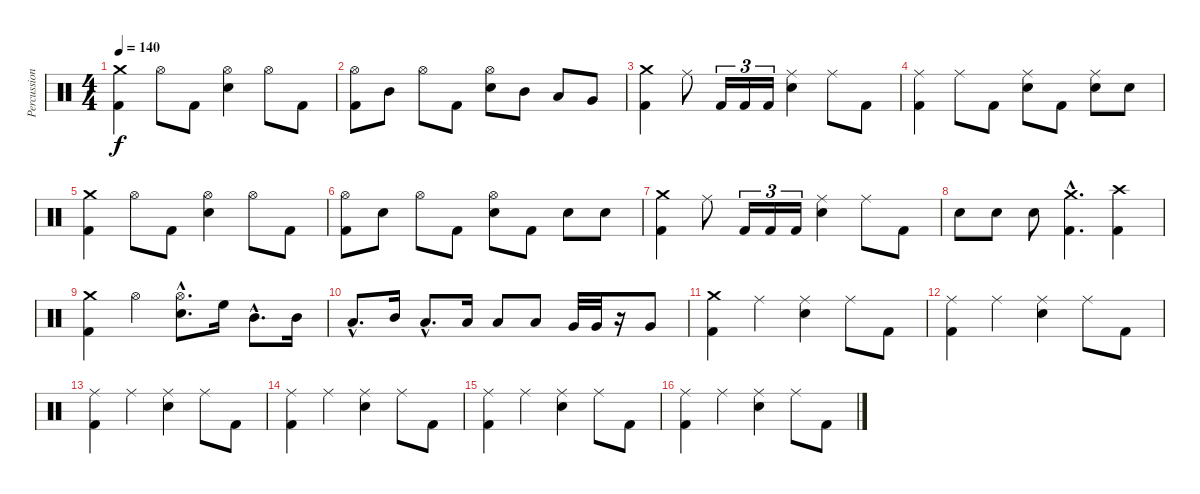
\track ("Percussion" "Percussion") {instrument percussion}
\staff {score}
\articulation defaults
\ts (4 4)
\tempo 140
\clef neutral
\ks c
("Crash medium (hit)" "Kick (hit) 2").4{dy f} "Hi-Hat (open)".8 "Kick (hit) 2".8 ("Hi-Hat (open)" "Snare (hit) 2").4 "Hi-Hat (open)".8 "Kick (hit) 2".8 |
("Hi-Hat (open)" "Kick (hit) 2").8 "Mid Tom (hit)".8 "Hi-Hat (open)".8 "Kick (hit) 2".8 ("Hi-Hat (open)" "Snare (hit) 2").8 "Mid Tom (hit)".8 "Low Tom (hit)".8 "Very Low Tom (hit)".8 |
("Crash medium (hit)" "Kick (hit) 2").4 "Ride (middle)".8 "Kick (hit) 2".16{tu (3 2)} "Kick (hit) 2".16{tu (3 2)} "Kick (hit) 2".16{tu (3 2)} ("Ride (middle)" "Snare (hit) 2").4 "Ride (middle)".8 "Kick (hit) 2".8 |
("Ride (middle)" "Kick (hit) 2").4 "Ride (middle)".8 "Kick (hit) 2".8 ("Ride (middle)" "Snare (hit) 2").8 "Kick (hit) 2".8 ("Ride (middle)" "Snare (hit) 2").8 "Snare (hit) 2".8 |
("Crash medium (hit)" "Kick (hit) 2").4 "Hi-Hat (open)".8 "Kick (hit) 2".8 ("Hi-Hat (open)" "Snare (hit) 2").4 "Hi-Hat (open)".8 "Kick (hit) 2".8 |
("Hi-Hat (open)" "Kick (hit) 2").8 "Snare (hit) 2".8 "Hi-Hat (open)".8 "Kick (hit) 2".8 ("Hi-Hat (open)" "Snare (hit) 2").8 "Kick (hit) 2".8 "Snare (hit) 2".8 "Snare (hit) 2".8 |
("Crash medium (hit)" "Kick (hit) 2").4 "Ride (middle)".8 "Kick (hit) 2".16{tu (3 2)} "Kick (hit) 2".16{tu (3 2)} "Kick (hit) 2".16{tu (3 2)} ("Ride (middle)" "Snare (hit) 2").4 "Ride (middle)".8 "Kick (hit) 2".8 |
"Snare (hit) 2".8 "Snare (hit) 2".8 "Snare (hit) 2".8 ("Crash medium (hit)"{hac} "Kick (hit) 2"{hac}).4{d} ("Crash high (hit)" "Kick (hit) 2").4 |
("Crash medium (hit)" "Kick (hit) 2").4 "Hi-Hat (open)".4 ("Hi-Hat (open)"{hac} "Snare (hit) 2"{hac}).8{d} "High Floor Tom (hit)".16 "Mid Tom (hit)"{hac}.8{d} "Mid Tom (hit)".16 |
"Low Tom (hit)"{hac}.8{d} "Mid Tom (hit)".16 "Low Tom (hit)"{hac}.8{d} "Low Tom (hit)".16 "Low Tom (hit)".8 "Low Tom (hit)".8 "Very Low Tom (hit)".32 "Very Low Tom (hit)".32 r.16 "Very Low Tom (hit)".8 |
("Crash medium (hit)" "Kick (hit) 2").4 "Ride (middle)".4 ("Ride (middle)" "Snare (hit) 2").4 "Ride (middle)".8 "Kick (hit) 2".8 |
("Ride (middle)" "Kick (hit) 2").4 "Ride (middle)".4 ("Ride (middle)" "Snare (hit) 2").4 "Ride (middle)".8 "Kick (hit) 2".8 |
("Ride (middle)" "Kick (hit) 2").4 "Ride (middle)".4 ("Ride (middle)" "Snare (hit) 2").4 "Ride (middle)".8 "Kick (hit) 2".8 |
("Ride (middle)" "Kick (hit) 2").4 "Ride (middle)".4 ("Ride (middle)" "Snare (hit) 2").4 "Ride (middle)".8 "Kick (hit) 2".8 |
("Ride (middle)" "Kick (hit) 2").4 "Ride (middle)".4 ("Ride (middle)" "Snare (hit) 2").4 "Ride (middle)".8 "Kick (hit) 2".8 |
("Ride (middle)" "Kick (hit) 2").4 "Ride (middle)".4 ("Ride (middle)" "Snare (hit) 2").4 "Ride (middle)".8 "Kick (hit) 2".8
